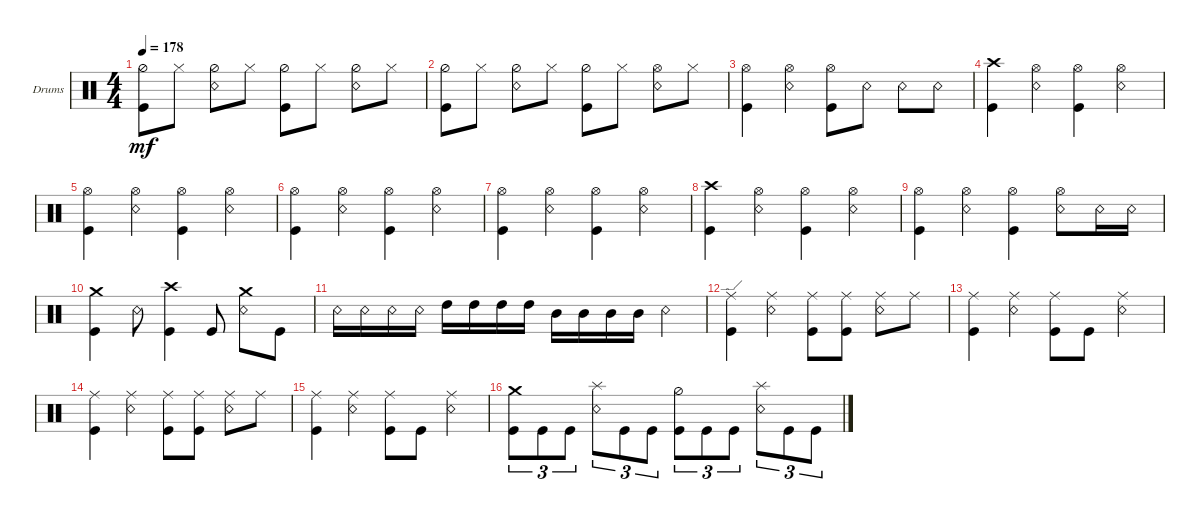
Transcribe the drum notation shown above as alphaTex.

\defaultSystemsLayout 4
\bracketExtendMode groupsimilarinstruments
\firstSystemTrackNameOrientation horizontal
\otherSystemsTrackNameOrientation horizontal
\track ("Drumkit" "Drums") {instrument percussion}
\staff {score}
\articulation defaults
\ts (4 4)
\tempo 178
\clef neutral
\ks c
("Kick (hit)" "Hi-Hat (half)").8{dy mf} "Hi-Hat (closed)".8 ("Hi-Hat (half)" "Snare (rim shot)").8 "Hi-Hat (closed)".8 ("Kick (hit)" "Hi-Hat (half)").8 "Hi-Hat (closed)".8 ("Hi-Hat (half)" "Snare (rim shot)").8 "Hi-Hat (closed)".8 |
("Kick (hit)" "Hi-Hat (half)").8 "Hi-Hat (closed)".8 ("Hi-Hat (half)" "Snare (rim shot)").8 "Hi-Hat (closed)".8 ("Kick (hit)" "Hi-Hat (half)").8 "Hi-Hat (closed)".8 ("Hi-Hat (open)" "Snare (rim shot)").8 "Hi-Hat (closed)".8 |
("Kick (hit)" "Hi-Hat (open)").4 ("Hi-Hat (open)" "Snare (rim shot)").4 ("Hi-Hat (open)" "Kick (hit)").8 "Snare (rim shot)".8 "Snare (rim shot)".8 "Snare (rim shot)".8 |
("Kick (hit)" "Crash high (hit)").4 ("Hi-Hat (open)" "Snare (rim shot)").4 ("Hi-Hat (open)" "Kick (hit)").4 ("Hi-Hat (open)" "Snare (rim shot)").4 |
("Kick (hit)" "Hi-Hat (open)").4 ("Hi-Hat (open)" "Snare (rim shot)").4 ("Hi-Hat (open)" "Kick (hit)").4 ("Hi-Hat (open)" "Snare (rim shot)").4 |
("Kick (hit)" "Hi-Hat (open)").4 ("Hi-Hat (open)" "Snare (rim shot)").4 ("Hi-Hat (open)" "Kick (hit)").4 ("Hi-Hat (open)" "Snare (rim shot)").4 |
("Kick (hit)" "Hi-Hat (open)").4 ("Hi-Hat (open)" "Snare (rim shot)").4 ("Hi-Hat (open)" "Kick (hit)").4 ("Hi-Hat (open)" "Snare (rim shot)").4 |
("Kick (hit)" "Crash high (hit)").4 ("Hi-Hat (open)" "Snare (rim shot)").4 ("Hi-Hat (open)" "Kick (hit)").4 ("Hi-Hat (open)" "Snare (rim shot)").4 |
("Kick (hit)" "Hi-Hat (open)").4 ("Hi-Hat (open)" "Snare (rim shot)").4 ("Hi-Hat (open)" "Kick (hit)").4 ("Hi-Hat (open)" "Snare (rim shot)").8 "Snare (rim shot)".16 "Snare (rim shot)".16 |
("Kick (hit)" "Crash medium (hit)").4 "Snare (rim shot)".8 ("Kick (hit)" "Crash high (hit)").4 "Kick (hit)".8 ("Crash medium (hit)" "Snare (rim shot)").8 "Kick (hit)".8 |
"Snare (rim shot)".16 "Snare (rim shot)".16 "Snare (rim shot)".16 "Snare (rim shot)".16 "High Tom (hit)".16 "High Tom (hit)".16 "High Tom (hit)".16 "High Tom (hit)".16 "Mid Tom (hit)".16 "Mid Tom (hit)".16 "Mid Tom (hit)".16 "Mid Tom (hit)".16 "Snare (rim shot)".4 |
("Kick (hit)" "Ride (edge)").4 ("Ride (middle)" "Snare (rim shot)").4 ("Ride (middle)" "Kick (hit)").8 ("Kick (hit)" "Ride (middle)").8 ("Ride (middle)" "Snare (rim shot)").8 "Ride (middle)".8 |
("Kick (hit)" "Ride (middle)").4 ("Ride (middle)" "Snare (rim shot)").4 ("Ride (middle)" "Kick (hit)").8 "Kick (hit)".8 ("Ride (middle)" "Snare (rim shot)").4 |
("Kick (hit)" "Ride (middle)").4 ("Ride (middle)" "Snare (rim shot)").4 ("Ride (middle)" "Kick (hit)").8 ("Kick (hit)" "Ride (middle)").8 ("Ride (middle)" "Snare (rim shot)").8 "Ride (middle)".8 |
("Kick (hit)" "Ride (middle)").4 ("Ride (middle)" "Snare (rim shot)").4 ("Ride (middle)" "Kick (hit)").8 "Kick (hit)".8 ("Ride (middle)" "Snare (rim shot)").4 |
("Kick (hit)" "Crash medium (hit)").8{tu (3 2)} "Kick (hit)".8{tu (3 2)} "Kick (hit)".8{tu (3 2)} ("Snare (rim shot)" "Splash (hit)").8{tu (3 2)} "Kick (hit)".8{tu (3 2)} "Kick (hit)".8{tu (3 2)} ("Kick (hit)" "Hi-Hat (half)").8{tu (3 2)} "Kick (hit)".8{tu (3 2)} "Kick (hit)".8{tu (3 2)} ("Snare (rim shot)" "Splash (hit)").8{tu (3 2)} "Kick (hit)".8{tu (3 2)} "Kick (hit)".8{tu (3 2)}
